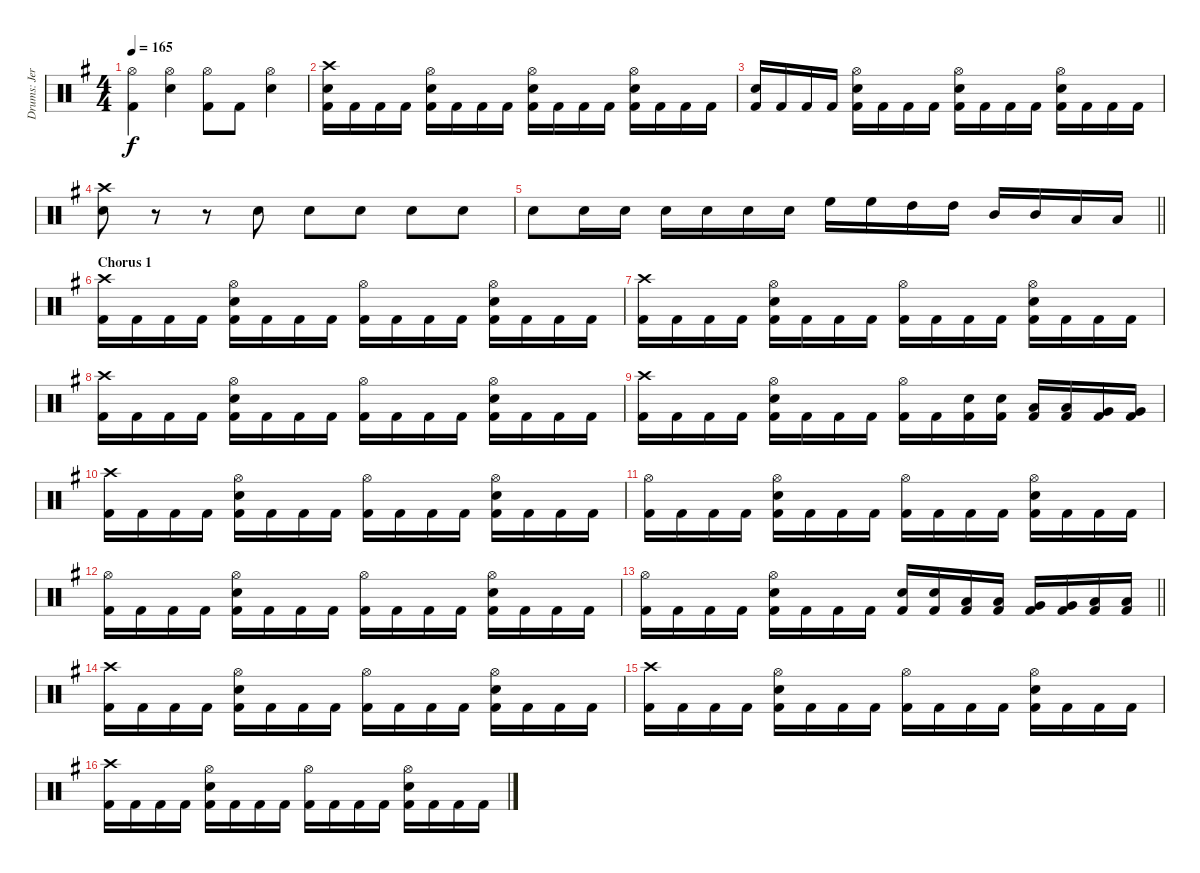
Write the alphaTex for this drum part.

\track ("Drums: Jere Luokkamäki" "Drums: Jer") {instrument percussion}
\staff {score}
\articulation defaults
\ts (4 4)
\tempo 165
\clef neutral
\ks eminor
("Hi-Hat (open)" "Kick (hit) 2").4{dy f} ("Hi-Hat (open)" "Electric Snare (hit)").4 ("Hi-Hat (open)" "Kick (hit) 2").8 "Kick (hit) 2".8 ("Hi-Hat (open)" "Electric Snare (hit)").4 |
("Crash high (hit)" "Electric Snare (hit)" "Kick (hit) 2").16 "Kick (hit) 2".16 "Kick (hit) 2".16 "Kick (hit) 2".16 ("Hi-Hat (open)" "Electric Snare (hit)" "Kick (hit) 2").16 "Kick (hit) 2".16 "Kick (hit) 2".16 "Kick (hit) 2".16 ("Hi-Hat (open)" "Electric Snare (hit)" "Kick (hit) 2").16 "Kick (hit) 2".16 "Kick (hit) 2".16 "Kick (hit) 2".16 ("Hi-Hat (open)" "Electric Snare (hit)" "Kick (hit) 2").16 "Kick (hit) 2".16 "Kick (hit) 2".16 "Kick (hit) 2".16 |
("Electric Snare (hit)" "Kick (hit) 2").16 "Kick (hit) 2".16 "Kick (hit) 2".16 "Kick (hit) 2".16 ("Hi-Hat (open)" "Electric Snare (hit)" "Kick (hit) 2").16 "Kick (hit) 2".16 "Kick (hit) 2".16 "Kick (hit) 2".16 ("Hi-Hat (open)" "Electric Snare (hit)" "Kick (hit) 2").16 "Kick (hit) 2".16 "Kick (hit) 2".16 "Kick (hit) 2".16 ("Hi-Hat (open)" "Electric Snare (hit)" "Kick (hit) 2").16 "Kick (hit) 2".16 "Kick (hit) 2".16 "Kick (hit) 2".16 |
("Crash high (hit)" "Electric Snare (hit)").8 r.8 r.8 "Electric Snare (hit)".8 "Electric Snare (hit)".8 "Electric Snare (hit)".8 "Electric Snare (hit)".8 "Electric Snare (hit)".8 |
\barLineRight lightlight "Electric Snare (hit)".8 "Electric Snare (hit)".16 "Electric Snare (hit)".16 "Electric Snare (hit)".16 "Electric Snare (hit)".16 "Electric Snare (hit)".16 "Electric Snare (hit)".16 "High Floor Tom (hit)".16 "High Floor Tom (hit)".16 "High Tom (hit)".16 "High Tom (hit)".16 "Mid Tom (hit)".16 "Mid Tom (hit)".16 "Low Tom (hit)".16 "Low Tom (hit)".16
|
\section ("" "Chorus 1")
("Crash high (hit)" "Kick (hit) 2").16 "Kick (hit) 2".16 "Kick (hit) 2".16 "Kick (hit) 2".16 ("Hi-Hat (open)" "Electric Snare (hit)" "Kick (hit) 2").16 "Kick (hit) 2".16 "Kick (hit) 2".16 "Kick (hit) 2".16 ("Hi-Hat (open)" "Kick (hit) 2").16 "Kick (hit) 2".16 "Kick (hit) 2".16 "Kick (hit) 2".16 ("Hi-Hat (open)" "Electric Snare (hit)" "Kick (hit) 2").16 "Kick (hit) 2".16 "Kick (hit) 2".16 "Kick (hit) 2".16 |
("Crash high (hit)" "Kick (hit) 2").16 "Kick (hit) 2".16 "Kick (hit) 2".16 "Kick (hit) 2".16 ("Hi-Hat (open)" "Electric Snare (hit)" "Kick (hit) 2").16 "Kick (hit) 2".16 "Kick (hit) 2".16 "Kick (hit) 2".16 ("Hi-Hat (open)" "Kick (hit) 2").16 "Kick (hit) 2".16 "Kick (hit) 2".16 "Kick (hit) 2".16 ("Hi-Hat (open)" "Electric Snare (hit)" "Kick (hit) 2").16 "Kick (hit) 2".16 "Kick (hit) 2".16 "Kick (hit) 2".16 |
("Crash high (hit)" "Kick (hit) 2").16 "Kick (hit) 2".16 "Kick (hit) 2".16 "Kick (hit) 2".16 ("Hi-Hat (open)" "Electric Snare (hit)" "Kick (hit) 2").16 "Kick (hit) 2".16 "Kick (hit) 2".16 "Kick (hit) 2".16 ("Hi-Hat (open)" "Kick (hit) 2").16 "Kick (hit) 2".16 "Kick (hit) 2".16 "Kick (hit) 2".16 ("Hi-Hat (open)" "Electric Snare (hit)" "Kick (hit) 2").16 "Kick (hit) 2".16 "Kick (hit) 2".16 "Kick (hit) 2".16 |
("Crash high (hit)" "Kick (hit) 2").16 "Kick (hit) 2".16 "Kick (hit) 2".16 "Kick (hit) 2".16 ("Hi-Hat (open)" "Electric Snare (hit)" "Kick (hit) 2").16 "Kick (hit) 2".16 "Kick (hit) 2".16 "Kick (hit) 2".16 ("Hi-Hat (open)" "Kick (hit) 2").16 "Kick (hit) 2".16 ("Electric Snare (hit)" "Kick (hit) 2").16 ("Electric Snare (hit)" "Kick (hit) 2").16 ("Low Tom (hit)" "Kick (hit) 2").16 ("Low Tom (hit)" "Kick (hit) 2").16 ("Very Low Tom (hit)" "Kick (hit) 2").16 ("Very Low Tom (hit)" "Kick (hit) 2").16 |
("Crash high (hit)" "Kick (hit) 2").16 "Kick (hit) 2".16 "Kick (hit) 2".16 "Kick (hit) 2".16 ("Hi-Hat (open)" "Electric Snare (hit)" "Kick (hit) 2").16 "Kick (hit) 2".16 "Kick (hit) 2".16 "Kick (hit) 2".16 ("Hi-Hat (open)" "Kick (hit) 2").16 "Kick (hit) 2".16 "Kick (hit) 2".16 "Kick (hit) 2".16 ("Hi-Hat (open)" "Electric Snare (hit)" "Kick (hit) 2").16 "Kick (hit) 2".16 "Kick (hit) 2".16 "Kick (hit) 2".16 |
("Hi-Hat (open)" "Kick (hit) 2").16 "Kick (hit) 2".16 "Kick (hit) 2".16 "Kick (hit) 2".16 ("Hi-Hat (open)" "Electric Snare (hit)" "Kick (hit) 2").16 "Kick (hit) 2".16 "Kick (hit) 2".16 "Kick (hit) 2".16 ("Hi-Hat (open)" "Kick (hit) 2").16 "Kick (hit) 2".16 "Kick (hit) 2".16 "Kick (hit) 2".16 ("Hi-Hat (open)" "Electric Snare (hit)" "Kick (hit) 2").16 "Kick (hit) 2".16 "Kick (hit) 2".16 "Kick (hit) 2".16 |
("Hi-Hat (open)" "Kick (hit) 2").16 "Kick (hit) 2".16 "Kick (hit) 2".16 "Kick (hit) 2".16 ("Hi-Hat (open)" "Electric Snare (hit)" "Kick (hit) 2").16 "Kick (hit) 2".16 "Kick (hit) 2".16 "Kick (hit) 2".16 ("Hi-Hat (open)" "Kick (hit) 2").16 "Kick (hit) 2".16 "Kick (hit) 2".16 "Kick (hit) 2".16 ("Hi-Hat (open)" "Electric Snare (hit)" "Kick (hit) 2").16 "Kick (hit) 2".16 "Kick (hit) 2".16 "Kick (hit) 2".16 |
\barLineRight lightlight
("Hi-Hat (open)" "Kick (hit) 2").16 "Kick (hit) 2".16 "Kick (hit) 2".16 "Kick (hit) 2".16 ("Hi-Hat (open)" "Electric Snare (hit)" "Kick (hit) 2").16 "Kick (hit) 2".16 "Kick (hit) 2".16 "Kick (hit) 2".16 ("Electric Snare (hit)" "Kick (hit) 2").16 ("Electric Snare (hit)" "Kick (hit) 2").16 ("Low Tom (hit)" "Kick (hit) 2").16 ("Low Tom (hit)" "Kick (hit) 2").16 ("Very Low Tom (hit)" "Kick (hit) 2").16 ("Very Low Tom (hit)" "Kick (hit) 2").16 ("Low Tom (hit)" "Kick (hit) 2").16 ("Low Tom (hit)" "Kick (hit) 2").16 |
("Crash high (hit)" "Kick (hit) 2").16 "Kick (hit) 2".16 "Kick (hit) 2".16 "Kick (hit) 2".16 ("Hi-Hat (open)" "Electric Snare (hit)" "Kick (hit) 2").16 "Kick (hit) 2".16 "Kick (hit) 2".16 "Kick (hit) 2".16 ("Hi-Hat (open)" "Kick (hit) 2").16 "Kick (hit) 2".16 "Kick (hit) 2".16 "Kick (hit) 2".16 ("Hi-Hat (open)" "Electric Snare (hit)" "Kick (hit) 2").16 "Kick (hit) 2".16 "Kick (hit) 2".16 "Kick (hit) 2".16 |
("Crash high (hit)" "Kick (hit) 2").16 "Kick (hit) 2".16 "Kick (hit) 2".16 "Kick (hit) 2".16 ("Hi-Hat (open)" "Electric Snare (hit)" "Kick (hit) 2").16 "Kick (hit) 2".16 "Kick (hit) 2".16 "Kick (hit) 2".16 ("Hi-Hat (open)" "Kick (hit) 2").16 "Kick (hit) 2".16 "Kick (hit) 2".16 "Kick (hit) 2".16 ("Hi-Hat (open)" "Electric Snare (hit)" "Kick (hit) 2").16 "Kick (hit) 2".16 "Kick (hit) 2".16 "Kick (hit) 2".16 |
("Crash high (hit)" "Kick (hit) 2").16 "Kick (hit) 2".16 "Kick (hit) 2".16 "Kick (hit) 2".16 ("Hi-Hat (open)" "Electric Snare (hit)" "Kick (hit) 2").16 "Kick (hit) 2".16 "Kick (hit) 2".16 "Kick (hit) 2".16 ("Hi-Hat (open)" "Kick (hit) 2").16 "Kick (hit) 2".16 "Kick (hit) 2".16 "Kick (hit) 2".16 ("Hi-Hat (open)" "Electric Snare (hit)" "Kick (hit) 2").16 "Kick (hit) 2".16 "Kick (hit) 2".16 "Kick (hit) 2".16
